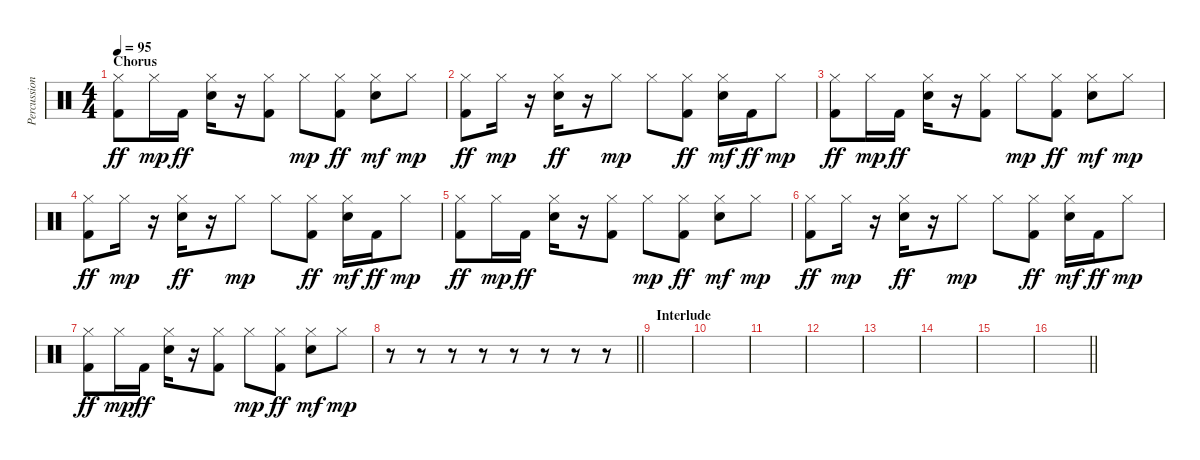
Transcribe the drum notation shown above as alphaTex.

\track ("Percussion" "Percussion") {instrument percussion}
\staff {score}
\articulation defaults
\ts (4 4)
\section ("" "Chorus")
\tempo 95
\clef neutral
\ks c
("Hi-Hat (closed)" "Kick (hit) 2").8{dy ff} "Hi-Hat (closed)".16{dy mp} "Kick (hit) 2".16{dy ff} ("Hi-Hat (closed)" "Snare (hit) 2").16 r.16 ("Hi-Hat (closed)" "Kick (hit) 2").8 "Hi-Hat (closed)".8{dy mp} ("Hi-Hat (closed)" "Kick (hit) 2").8{dy ff} ("Hi-Hat (closed)" "Snare (hit) 2").8{dy mf} "Hi-Hat (closed)".8{dy mp} |
("Hi-Hat (closed)" "Kick (hit) 2").8{dy ff} "Hi-Hat (closed)".16{dy mp} r.16 ("Hi-Hat (closed)" "Snare (hit) 2").16{dy ff} r.16 "Hi-Hat (closed)".8{dy mp} "Hi-Hat (closed)".8 ("Hi-Hat (closed)" "Kick (hit) 2").8{dy ff} ("Hi-Hat (closed)" "Snare (hit) 2").16{dy mf} "Kick (hit) 2".16{dy ff} "Hi-Hat (closed)".8{dy mp} |
("Hi-Hat (closed)" "Kick (hit) 2").8{dy ff} "Hi-Hat (closed)".16{dy mp} "Kick (hit) 2".16{dy ff} ("Hi-Hat (closed)" "Snare (hit) 2").16 r.16 ("Hi-Hat (closed)" "Kick (hit) 2").8 "Hi-Hat (closed)".8{dy mp} ("Hi-Hat (closed)" "Kick (hit) 2").8{dy ff} ("Hi-Hat (closed)" "Snare (hit) 2").8{dy mf} "Hi-Hat (closed)".8{dy mp} |
("Hi-Hat (closed)" "Kick (hit) 2").8{dy ff} "Hi-Hat (closed)".16{dy mp} r.16 ("Hi-Hat (closed)" "Snare (hit) 2").16{dy ff} r.16 "Hi-Hat (closed)".8{dy mp} "Hi-Hat (closed)".8 ("Hi-Hat (closed)" "Kick (hit) 2").8{dy ff} ("Hi-Hat (closed)" "Snare (hit) 2").16{dy mf} "Kick (hit) 2".16{dy ff} "Hi-Hat (closed)".8{dy mp} |
("Hi-Hat (closed)" "Kick (hit) 2").8{dy ff} "Hi-Hat (closed)".16{dy mp} "Kick (hit) 2".16{dy ff} ("Hi-Hat (closed)" "Snare (hit) 2").16 r.16 ("Hi-Hat (closed)" "Kick (hit) 2").8 "Hi-Hat (closed)".8{dy mp} ("Hi-Hat (closed)" "Kick (hit) 2").8{dy ff} ("Hi-Hat (closed)" "Snare (hit) 2").8{dy mf} "Hi-Hat (closed)".8{dy mp} |
("Hi-Hat (closed)" "Kick (hit) 2").8{dy ff} "Hi-Hat (closed)".16{dy mp} r.16 ("Hi-Hat (closed)" "Snare (hit) 2").16{dy ff} r.16 "Hi-Hat (closed)".8{dy mp} "Hi-Hat (closed)".8 ("Hi-Hat (closed)" "Kick (hit) 2").8{dy ff} ("Hi-Hat (closed)" "Snare (hit) 2").16{dy mf} "Kick (hit) 2".16{dy ff} "Hi-Hat (closed)".8{dy mp} |
("Hi-Hat (closed)" "Kick (hit) 2").8{dy ff} "Hi-Hat (closed)".16{dy mp} "Kick (hit) 2".16{dy ff} ("Hi-Hat (closed)" "Snare (hit) 2").16 r.16 ("Hi-Hat (closed)" "Kick (hit) 2").8 "Hi-Hat (closed)".8{dy mp} ("Hi-Hat (closed)" "Kick (hit) 2").8{dy ff} ("Hi-Hat (closed)" "Snare (hit) 2").8{dy mf} "Hi-Hat (closed)".8{dy mp} |
\barLineRight lightlight
r.8 r.8 r.8 r.8 r.8 r.8 r.8 r.8 |
\section ("" "Interlude")
|
|
|
|
|
|
|
\barLineRight lightlight
